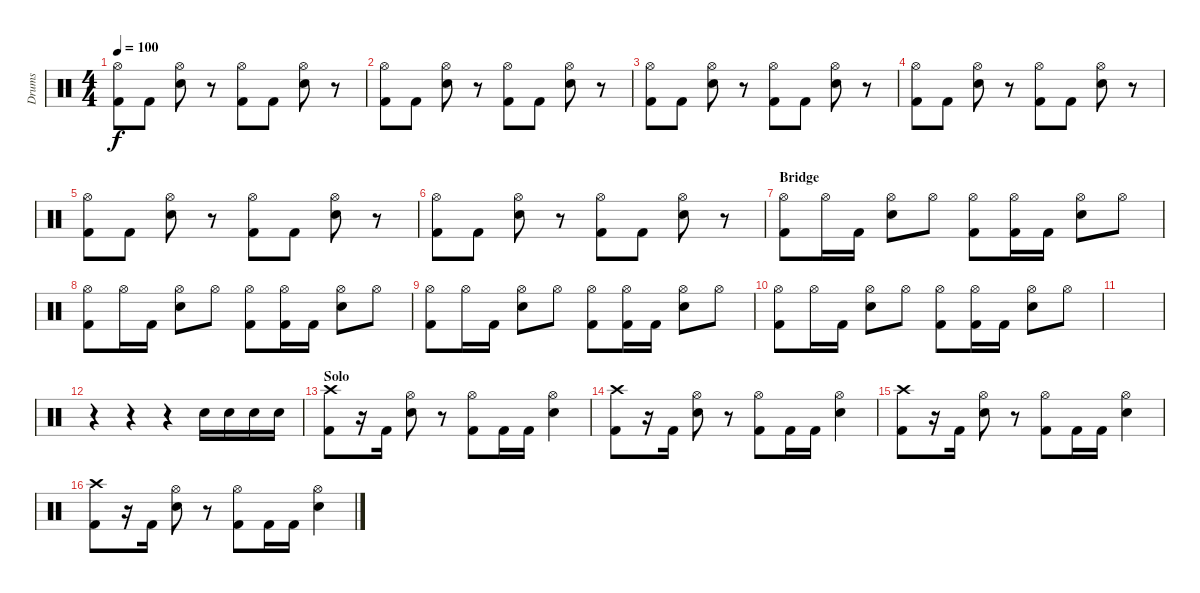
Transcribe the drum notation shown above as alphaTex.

\track ("Drums" "Drums") {instrument percussion}
\staff {score}
\articulation defaults
\ts (4 4)
\tempo 100
\clef neutral
\ks c
("Hi-Hat (open)" "Kick (hit) 2").8{dy f} "Kick (hit) 2".8 ("Hi-Hat (open)" "Snare (hit) 2").8 r.8 ("Hi-Hat (open)" "Kick (hit) 2").8 "Kick (hit) 2".8 ("Hi-Hat (open)" "Snare (hit) 2").8 r.8 |
("Hi-Hat (open)" "Kick (hit) 2").8 "Kick (hit) 2".8 ("Hi-Hat (open)" "Snare (hit) 2").8 r.8 ("Hi-Hat (open)" "Kick (hit) 2").8 "Kick (hit) 2".8 ("Hi-Hat (open)" "Snare (hit) 2").8 r.8 |
("Hi-Hat (open)" "Kick (hit) 2").8 "Kick (hit) 2".8 ("Hi-Hat (open)" "Snare (hit) 2").8 r.8 ("Hi-Hat (open)" "Kick (hit) 2").8 "Kick (hit) 2".8 ("Hi-Hat (open)" "Snare (hit) 2").8 r.8 |
("Hi-Hat (open)" "Kick (hit) 2").8 "Kick (hit) 2".8 ("Hi-Hat (open)" "Snare (hit) 2").8 r.8 ("Hi-Hat (open)" "Kick (hit) 2").8 "Kick (hit) 2".8 ("Hi-Hat (open)" "Snare (hit) 2").8 r.8 |
("Hi-Hat (open)" "Kick (hit) 2").8 "Kick (hit) 2".8 ("Hi-Hat (open)" "Snare (hit) 2").8 r.8 ("Hi-Hat (open)" "Kick (hit) 2").8 "Kick (hit) 2".8 ("Hi-Hat (open)" "Snare (hit) 2").8 r.8 |
("Hi-Hat (open)" "Kick (hit) 2").8 "Kick (hit) 2".8 ("Hi-Hat (open)" "Snare (hit) 2").8 r.8 ("Hi-Hat (open)" "Kick (hit) 2").8 "Kick (hit) 2".8 ("Hi-Hat (open)" "Snare (hit) 2").8 r.8 |
\section ("" "Bridge")
("Hi-Hat (open)" "Kick (hit) 2").8 "Hi-Hat (open)".16 "Kick (hit) 2".16 ("Hi-Hat (open)" "Snare (hit) 2").8 "Hi-Hat (open)".8 ("Hi-Hat (open)" "Kick (hit) 2").8 ("Hi-Hat (open)" "Kick (hit) 2").16 "Kick (hit) 2".16 ("Hi-Hat (open)" "Snare (hit) 2").8 "Hi-Hat (open)".8 |
("Hi-Hat (open)" "Kick (hit) 2").8 "Hi-Hat (open)".16 "Kick (hit) 2".16 ("Hi-Hat (open)" "Snare (hit) 2").8 "Hi-Hat (open)".8 ("Hi-Hat (open)" "Kick (hit) 2").8 ("Hi-Hat (open)" "Kick (hit) 2").16 "Kick (hit) 2".16 ("Hi-Hat (open)" "Snare (hit) 2").8 "Hi-Hat (open)".8 |
("Hi-Hat (open)" "Kick (hit) 2").8 "Hi-Hat (open)".16 "Kick (hit) 2".16 ("Hi-Hat (open)" "Snare (hit) 2").8 "Hi-Hat (open)".8 ("Hi-Hat (open)" "Kick (hit) 2").8 ("Hi-Hat (open)" "Kick (hit) 2").16 "Kick (hit) 2".16 ("Hi-Hat (open)" "Snare (hit) 2").8 "Hi-Hat (open)".8 |
("Hi-Hat (open)" "Kick (hit) 2").8 "Hi-Hat (open)".16 "Kick (hit) 2".16 ("Hi-Hat (open)" "Snare (hit) 2").8 "Hi-Hat (open)".8 ("Hi-Hat (open)" "Kick (hit) 2").8 ("Hi-Hat (open)" "Kick (hit) 2").16 "Kick (hit) 2".16 ("Hi-Hat (open)" "Snare (hit) 2").8 "Hi-Hat (open)".8 |
|
r.4 r.4 r.4 "Snare (hit) 2".16 "Snare (hit) 2".16 "Snare (hit) 2".16 "Snare (hit) 2".16 |
\section ("" "Solo")
("Crash high (hit)" "Kick (hit) 2").8 r.16 "Kick (hit) 2".16 ("Hi-Hat (open)" "Snare (hit) 2").8 r.8 ("Hi-Hat (open)" "Kick (hit) 2").8 "Kick (hit) 2".16 "Kick (hit) 2".16 ("Hi-Hat (open)" "Snare (hit) 2").4 |
("Crash high (hit)" "Kick (hit) 2").8 r.16 "Kick (hit) 2".16 ("Hi-Hat (open)" "Snare (hit) 2").8 r.8 ("Hi-Hat (open)" "Kick (hit) 2").8 "Kick (hit) 2".16 "Kick (hit) 2".16 ("Hi-Hat (open)" "Snare (hit) 2").4 |
("Crash high (hit)" "Kick (hit) 2").8 r.16 "Kick (hit) 2".16 ("Hi-Hat (open)" "Snare (hit) 2").8 r.8 ("Hi-Hat (open)" "Kick (hit) 2").8 "Kick (hit) 2".16 "Kick (hit) 2".16 ("Hi-Hat (open)" "Snare (hit) 2").4 |
("Crash high (hit)" "Kick (hit) 2").8 r.16 "Kick (hit) 2".16 ("Hi-Hat (open)" "Snare (hit) 2").8 r.8 ("Hi-Hat (open)" "Kick (hit) 2").8 "Kick (hit) 2".16 "Kick (hit) 2".16 ("Hi-Hat (open)" "Snare (hit) 2").4
